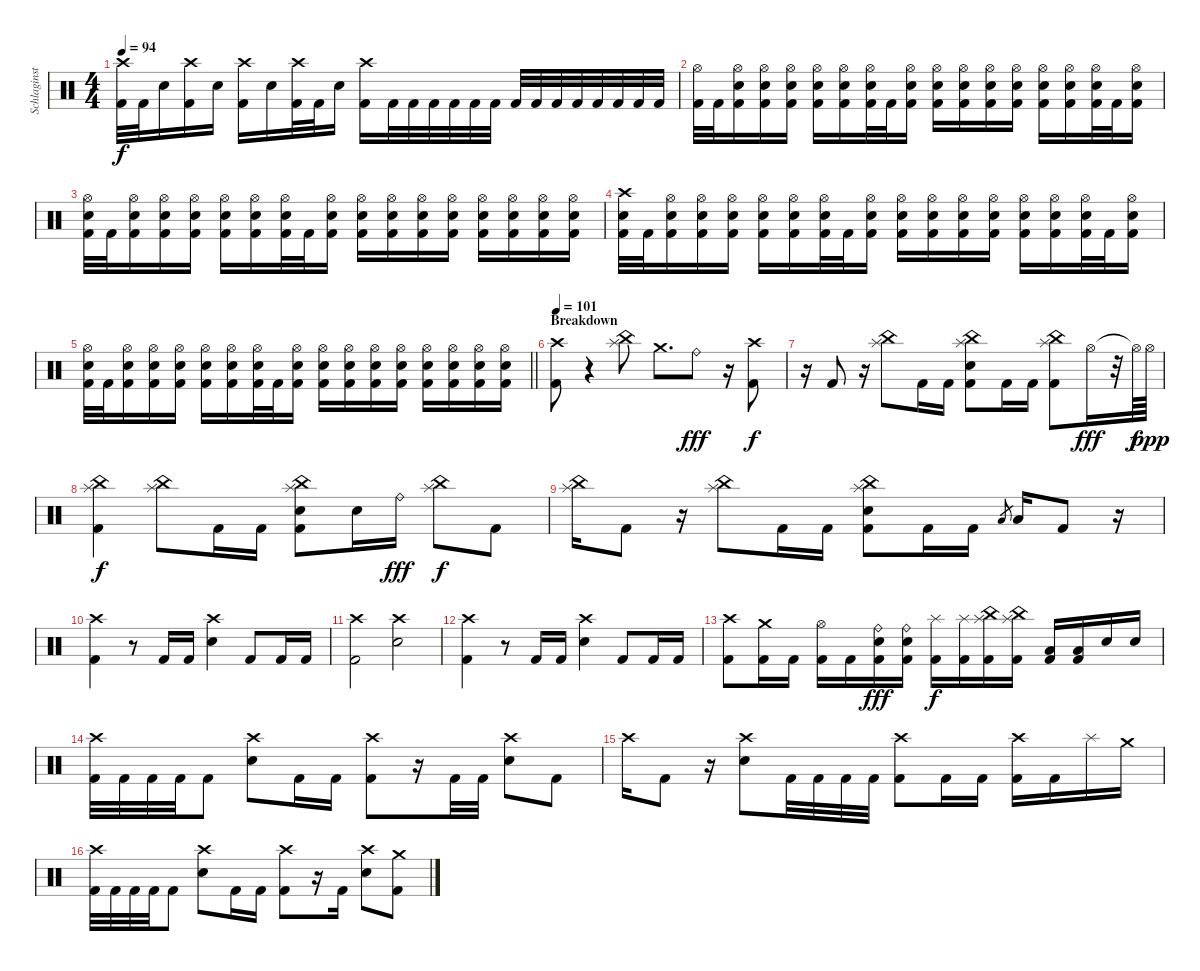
\track ("Schlaginstrumente - Auswahl" "Schlaginst") {instrument percussion}
\staff {score}
\articulation defaults
\ts (4 4)
\tempo 94
\clef neutral
\ks c
("Crash high (hit)" "Kick (hit) 2").32{dy f} "Kick (hit) 2".32 "Snare (hit) 2".16 ("Crash high (hit)" "Kick (hit) 2").16 "Snare (hit) 2".16 ("Crash high (hit)" "Kick (hit) 2").16 "Snare (hit) 2".16 ("Crash high (hit)" "Kick (hit) 2").32 "Kick (hit) 2".32 "Snare (hit) 2".16 ("Crash high (hit)" "Kick (hit) 2").16 "Kick (hit) 2".32 "Kick (hit) 2".32 "Kick (hit) 2".32 "Kick (hit) 2".32 "Kick (hit) 2".32 "Kick (hit) 2".32 "Kick (hit) 2".32 "Kick (hit) 2".32 "Kick (hit) 2".32 "Kick (hit) 2".32 "Kick (hit) 2".32 "Kick (hit) 2".32 "Kick (hit) 2".32 "Kick (hit) 2".32 |
("Hi-Hat (open)" "Kick (hit) 2").32 "Kick (hit) 2".32 ("Hi-Hat (open)" "Snare (hit) 2" "Kick (hit) 2").16 ("Hi-Hat (open)" "Snare (hit) 2" "Kick (hit) 2").16 ("Hi-Hat (open)" "Snare (hit) 2" "Kick (hit) 2").16 ("Hi-Hat (open)" "Snare (hit) 2" "Kick (hit) 2").16 ("Hi-Hat (open)" "Snare (hit) 2" "Kick (hit) 2").16 ("Hi-Hat (open)" "Snare (hit) 2" "Kick (hit) 2").32 "Kick (hit) 2".32 ("Hi-Hat (open)" "Snare (hit) 2" "Kick (hit) 2").16 ("Hi-Hat (open)" "Snare (hit) 2" "Kick (hit) 2").16 ("Hi-Hat (open)" "Snare (hit) 2" "Kick (hit) 2").16 ("Hi-Hat (open)" "Snare (hit) 2" "Kick (hit) 2").16 ("Hi-Hat (open)" "Snare (hit) 2" "Kick (hit) 2").16 ("Hi-Hat (open)" "Snare (hit) 2" "Kick (hit) 2").16 ("Hi-Hat (open)" "Snare (hit) 2" "Kick (hit) 2").16 ("Hi-Hat (open)" "Snare (hit) 2" "Kick (hit) 2").32 "Kick (hit) 2".32 ("Hi-Hat (open)" "Snare (hit) 2" "Kick (hit) 2").16 |
("Hi-Hat (open)" "Snare (hit) 2" "Kick (hit) 2").32 "Kick (hit) 2".32 ("Hi-Hat (open)" "Snare (hit) 2" "Kick (hit) 2").16 ("Hi-Hat (open)" "Snare (hit) 2" "Kick (hit) 2").16 ("Hi-Hat (open)" "Snare (hit) 2" "Kick (hit) 2").16 ("Hi-Hat (open)" "Snare (hit) 2" "Kick (hit) 2").16 ("Hi-Hat (open)" "Snare (hit) 2" "Kick (hit) 2").16 ("Hi-Hat (open)" "Snare (hit) 2" "Kick (hit) 2").32 "Kick (hit) 2".32 ("Hi-Hat (open)" "Snare (hit) 2" "Kick (hit) 2").16 ("Hi-Hat (open)" "Snare (hit) 2" "Kick (hit) 2").16 ("Hi-Hat (open)" "Snare (hit) 2" "Kick (hit) 2").16 ("Hi-Hat (open)" "Snare (hit) 2" "Kick (hit) 2").16 ("Hi-Hat (open)" "Snare (hit) 2" "Kick (hit) 2").16 ("Hi-Hat (open)" "Snare (hit) 2" "Kick (hit) 2").16 ("Hi-Hat (open)" "Snare (hit) 2" "Kick (hit) 2").16 ("Hi-Hat (open)" "Snare (hit) 2" "Kick (hit) 2").16 ("Hi-Hat (open)" "Snare (hit) 2" "Kick (hit) 2").16 |
("Crash high (hit)" "Snare (hit) 2" "Kick (hit) 2").32 "Kick (hit) 2".32 ("Hi-Hat (open)" "Snare (hit) 2" "Kick (hit) 2").16 ("Hi-Hat (open)" "Snare (hit) 2" "Kick (hit) 2").16 ("Hi-Hat (open)" "Snare (hit) 2" "Kick (hit) 2").16 ("Hi-Hat (open)" "Snare (hit) 2" "Kick (hit) 2").16 ("Hi-Hat (open)" "Snare (hit) 2" "Kick (hit) 2").16 ("Hi-Hat (open)" "Snare (hit) 2" "Kick (hit) 2").32 "Kick (hit) 2".32 ("Hi-Hat (open)" "Snare (hit) 2" "Kick (hit) 2").16 ("Hi-Hat (open)" "Snare (hit) 2" "Kick (hit) 2").16 ("Hi-Hat (open)" "Snare (hit) 2" "Kick (hit) 2").16 ("Hi-Hat (open)" "Snare (hit) 2" "Kick (hit) 2").16 ("Hi-Hat (open)" "Snare (hit) 2" "Kick (hit) 2").16 ("Hi-Hat (open)" "Snare (hit) 2" "Kick (hit) 2").16 ("Hi-Hat (open)" "Snare (hit) 2" "Kick (hit) 2").16 ("Hi-Hat (open)" "Snare (hit) 2" "Kick (hit) 2").32 "Kick (hit) 2".32 ("Hi-Hat (open)" "Snare (hit) 2" "Kick (hit) 2").16 |
\barLineRight lightlight
("Hi-Hat (open)" "Snare (hit) 2" "Kick (hit) 2").32 "Kick (hit) 2".32 ("Hi-Hat (open)" "Snare (hit) 2" "Kick (hit) 2").16 ("Hi-Hat (open)" "Snare (hit) 2" "Kick (hit) 2").16 ("Hi-Hat (open)" "Snare (hit) 2" "Kick (hit) 2").16 ("Hi-Hat (open)" "Snare (hit) 2" "Kick (hit) 2").16 ("Hi-Hat (open)" "Snare (hit) 2" "Kick (hit) 2").16 ("Hi-Hat (open)" "Snare (hit) 2" "Kick (hit) 2").32 "Kick (hit) 2".32 ("Hi-Hat (open)" "Snare (hit) 2" "Kick (hit) 2").16 ("Hi-Hat (open)" "Snare (hit) 2" "Kick (hit) 2").16 ("Hi-Hat (open)" "Snare (hit) 2" "Kick (hit) 2").16 ("Hi-Hat (open)" "Snare (hit) 2" "Kick (hit) 2").16 ("Hi-Hat (open)" "Snare (hit) 2" "Kick (hit) 2").16 ("Hi-Hat (open)" "Snare (hit) 2" "Kick (hit) 2").16 ("Hi-Hat (open)" "Snare (hit) 2" "Kick (hit) 2").16 ("Hi-Hat (open)" "Snare (hit) 2" "Kick (hit) 2").16 ("Hi-Hat (open)" "Snare (hit) 2" "Kick (hit) 2").16 |
\section ("" "Breakdown")
\tempo 101
("Crash high (hit)" "Kick (hit) 2").8 r.4 ("China (hit)" "Splash (hit)").8 "Crash medium (hit)".8{d} "Ride (bell)".8{dy fff} r.16 ("Crash high (hit)" "Kick (hit) 2").8{dy f} |
r.16 "Kick (hit) 2".8 r.16 ("China (hit)" "Splash (hit)").8 "Kick (hit) 2".16 "Kick (hit) 2".16 ("China (hit)" "Splash (hit)" "Snare (hit) 2" "Kick (hit) 2").8 "Kick (hit) 2".16 "Kick (hit) 2".16 ("China (hit)" "Splash (hit)" "Kick (hit) 2").8 "Hi-Hat (open)".16{dy fff} r.32 "Hi-Hat (open)"{t}.64{dy f} "Hi-Hat (open)".64{dy ppp} |
("China (hit)" "Splash (hit)" "Kick (hit) 2").4{dy f} ("China (hit)" "Splash (hit)").8 "Kick (hit) 2".16 "Kick (hit) 2".16 ("China (hit)" "Splash (hit)" "Snare (hit) 2" "Kick (hit) 2").8 "Snare (hit) 2".16 "Ride (bell)".16{dy fff} ("China (hit)" "Splash (hit)").8{dy f} "Kick (hit) 2".8 |
("China (hit)" "Splash (hit)").16 "Kick (hit) 2".8 r.16 ("China (hit)" "Splash (hit)").8 "Kick (hit) 2".16 "Kick (hit) 2".16 ("China (hit)" "Splash (hit)" "Snare (hit) 2" "Kick (hit) 2").8 "Kick (hit) 2".16 "Kick (hit) 2".16 "Low Tom (hit)".8{gr} "Low Tom (hit)".16 "Kick (hit) 2".8 r.16 |
("Crash high (hit)" "Kick (hit) 2").4 r.8 "Kick (hit) 2".16 "Kick (hit) 2".16 ("Crash high (hit)" "Snare (hit) 2").4 "Kick (hit) 2".8 "Kick (hit) 2".16 "Kick (hit) 2".16 |
("Crash high (hit)" "Kick (hit) 2").2 ("Crash high (hit)" "Snare (hit) 2").2 |
("Crash high (hit)" "Kick (hit) 2").4 r.8 "Kick (hit) 2".16 "Kick (hit) 2".16 ("Crash high (hit)" "Snare (hit) 2").4 "Kick (hit) 2".8 "Kick (hit) 2".16 "Kick (hit) 2".16 |
("Crash high (hit)" "Kick (hit) 2").8 ("Crash medium (hit)" "Kick (hit) 2").16 "Kick (hit) 2".16 ("Hi-Hat (open)" "Kick (hit) 2").16 "Kick (hit) 2".16 ("Ride (bell)" "Snare (hit) 2" "Kick (hit) 2").16{dy fff} ("Ride (bell)" "Snare (hit) 2" "Kick (hit) 2").16 ("Splash (hit)" "Kick (hit) 2").16{dy f} ("Splash (hit)" "Kick (hit) 2").16 ("China (hit)" "Splash (hit)" "Kick (hit) 2").16 ("China (hit)" "Splash (hit)" "Kick (hit) 2").16 ("Low Tom (hit)" "Kick (hit) 2").16 ("Low Tom (hit)" "Kick (hit) 2").16 "Snare (hit) 2".16 "Snare (hit) 2".16 |
("Crash high (hit)" "Kick (hit) 2").32 "Kick (hit) 2".32 "Kick (hit) 2".32 "Kick (hit) 2".32 "Kick (hit) 2".8 ("Crash high (hit)" "Snare (hit) 2").8 "Kick (hit) 2".16 "Kick (hit) 2".16 ("Crash high (hit)" "Kick (hit) 2").8 r.16 "Kick (hit) 2".32 "Kick (hit) 2".32 ("Crash high (hit)" "Snare (hit) 2").8 "Kick (hit) 2".8 |
"Crash high (hit)".16 "Kick (hit) 2".8 r.16 ("Crash high (hit)" "Snare (hit) 2").8 "Kick (hit) 2".32 "Kick (hit) 2".32 "Kick (hit) 2".32 "Kick (hit) 2".32 ("Crash high (hit)" "Kick (hit) 2").8 "Kick (hit) 2".16 "Kick (hit) 2".16 ("Crash high (hit)" "Kick (hit) 2").16 "Kick (hit) 2".16 "Splash (hit)".16 "Crash medium (hit)".16 |
("Crash high (hit)" "Kick (hit) 2").32 "Kick (hit) 2".32 "Kick (hit) 2".32 "Kick (hit) 2".32 "Kick (hit) 2".8 ("Crash high (hit)" "Snare (hit) 2").8 "Kick (hit) 2".16 "Kick (hit) 2".16 ("Crash high (hit)" "Kick (hit) 2").8 r.16 "Kick (hit) 2".16 ("Crash high (hit)" "Snare (hit) 2").8 ("Crash medium (hit)" "Kick (hit) 2").8
